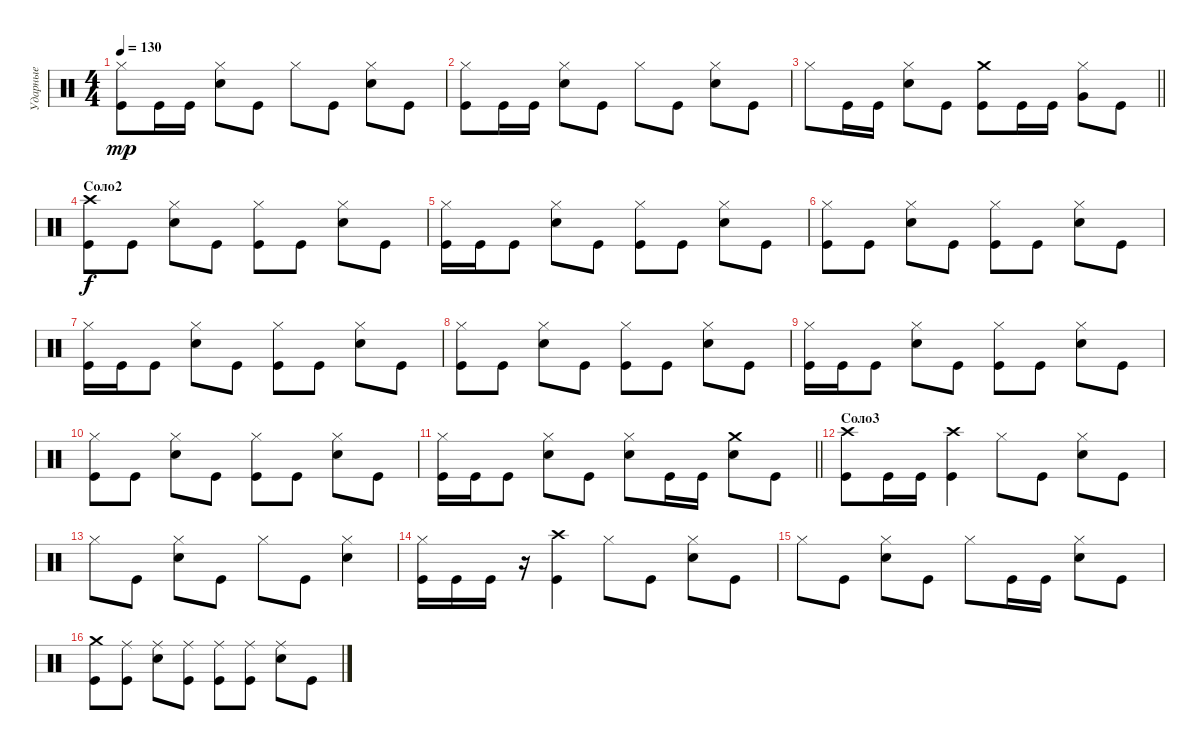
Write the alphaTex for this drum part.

\track ("Ударные" "Ударные") {instrument percussion}
\staff {score}
\articulation defaults
\ts (4 4)
\tempo 130
\clef neutral
\ks c
("Hi-Hat (closed)" "Kick (hit)").8{dy mp} "Kick (hit)".16 "Kick (hit)".16 ("Hi-Hat (closed)" "Snare (hit) 2").8 "Kick (hit)".8 "Hi-Hat (closed)".8 "Kick (hit)".8 ("Hi-Hat (closed)" "Snare (hit) 2").8 "Kick (hit)".8 |
("Hi-Hat (closed)" "Kick (hit)").8 "Kick (hit)".16 "Kick (hit)".16 ("Hi-Hat (closed)" "Snare (hit) 2").8 "Kick (hit)".8 "Hi-Hat (closed)".8 "Kick (hit)".8 ("Hi-Hat (closed)" "Snare (hit) 2").8 "Kick (hit)".8 |
\barLineRight lightlight "Hi-Hat (closed)".8 "Kick (hit)".16 "Kick (hit)".16
("Hi-Hat (closed)" "Snare (hit) 2").8 "Kick (hit)".8 ("Crash medium (hit)" "Kick (hit)").8 "Kick (hit)".16 "Kick (hit)".16 ("Hi-Hat (closed)" "Very Low Tom (hit)").8 "Kick (hit)".8 |
\section ("" "Соло2")
("Crash high (hit)" "Kick (hit)").8{dy f} "Kick (hit)".8 ("Hi-Hat (closed)" "Snare (hit) 2").8 "Kick (hit)".8 ("Hi-Hat (closed)" "Kick (hit)").8 "Kick (hit)".8 ("Hi-Hat (closed)" "Snare (hit) 2").8 "Kick (hit)".8 |
("Hi-Hat (closed)" "Kick (hit)").16 "Kick (hit)".16 "Kick (hit)".8 ("Hi-Hat (closed)" "Snare (hit) 2").8 "Kick (hit)".8 ("Hi-Hat (closed)" "Kick (hit)").8 "Kick (hit)".8 ("Hi-Hat (closed)" "Snare (hit) 2").8 "Kick (hit)".8 |
("Hi-Hat (closed)" "Kick (hit)").8 "Kick (hit)".8 ("Hi-Hat (closed)" "Snare (hit) 2").8 "Kick (hit)".8 ("Hi-Hat (closed)" "Kick (hit)").8 "Kick (hit)".8 ("Hi-Hat (closed)" "Snare (hit) 2").8 "Kick (hit)".8 |
("Hi-Hat (closed)" "Kick (hit)").16 "Kick (hit)".16 "Kick (hit)".8 ("Hi-Hat (closed)" "Snare (hit) 2").8 "Kick (hit)".8 ("Hi-Hat (closed)" "Kick (hit)").8 "Kick (hit)".8 ("Hi-Hat (closed)" "Snare (hit) 2").8 "Kick (hit)".8 |
("Hi-Hat (closed)" "Kick (hit)").8 "Kick (hit)".8 ("Hi-Hat (closed)" "Snare (hit) 2").8 "Kick (hit)".8 ("Hi-Hat (closed)" "Kick (hit)").8 "Kick (hit)".8 ("Hi-Hat (closed)" "Snare (hit) 2").8 "Kick (hit)".8 |
("Hi-Hat (closed)" "Kick (hit)").16 "Kick (hit)".16 "Kick (hit)".8 ("Hi-Hat (closed)" "Snare (hit) 2").8 "Kick (hit)".8 ("Hi-Hat (closed)" "Kick (hit)").8 "Kick (hit)".8 ("Hi-Hat (closed)" "Snare (hit) 2").8 "Kick (hit)".8 |
("Hi-Hat (closed)" "Kick (hit)").8 "Kick (hit)".8 ("Hi-Hat (closed)" "Snare (hit) 2").8 "Kick (hit)".8 ("Hi-Hat (closed)" "Kick (hit)").8 "Kick (hit)".8 ("Hi-Hat (closed)" "Snare (hit) 2").8 "Kick (hit)".8 |
\barLineRight lightlight
("Hi-Hat (closed)" "Kick (hit)").16 "Kick (hit)".16 "Kick (hit)".8 ("Hi-Hat (closed)" "Snare (hit) 2").8 "Kick (hit)".8 ("Hi-Hat (closed)" "Snare (hit) 2").8 "Kick (hit)".16 "Kick (hit)".16 ("Crash medium (hit)" "Snare (hit) 2").8 "Kick (hit)".8 |
\section ("" "Соло3")
("Crash high (hit)" "Kick (hit)").8 "Kick (hit)".16 "Kick (hit)".16 ("Crash high (hit)" "Kick (hit)").4 "Hi-Hat (closed)".8 "Kick (hit)".8 ("Hi-Hat (closed)" "Snare (hit) 2").8 "Kick (hit)".8 |
"Hi-Hat (closed)".8 "Kick (hit)".8 ("Hi-Hat (closed)" "Snare (hit) 2").8 "Kick (hit)".8 "Hi-Hat (closed)".8 "Kick (hit)".8 ("Hi-Hat (closed)" "Snare (hit) 2").4 |
("Hi-Hat (closed)" "Kick (hit)").16 "Kick (hit)".16 "Kick (hit)".16 r.16 ("Crash high (hit)" "Kick (hit)").4 "Hi-Hat (closed)".8 "Kick (hit)".8 ("Hi-Hat (closed)" "Snare (hit) 2").8 "Kick (hit)".8 |
"Hi-Hat (closed)".8 "Kick (hit)".8 ("Hi-Hat (closed)" "Snare (hit) 2").8 "Kick (hit)".8 "Hi-Hat (closed)".8 "Kick (hit)".16 "Kick (hit)".16 ("Hi-Hat (closed)" "Snare (hit) 2").8 "Kick (hit)".8 |
("Crash medium (hit)" "Kick (hit)").8 ("Ride (middle)" "Kick (hit)").8 ("Ride (middle)" "Snare (hit) 2").8 ("Ride (middle)" "Kick (hit)").8 ("Ride (middle)" "Kick (hit)").8 ("Ride (middle)" "Kick (hit)").8 ("Ride (middle)" "Snare (hit) 2").8 "Kick (hit)".8
